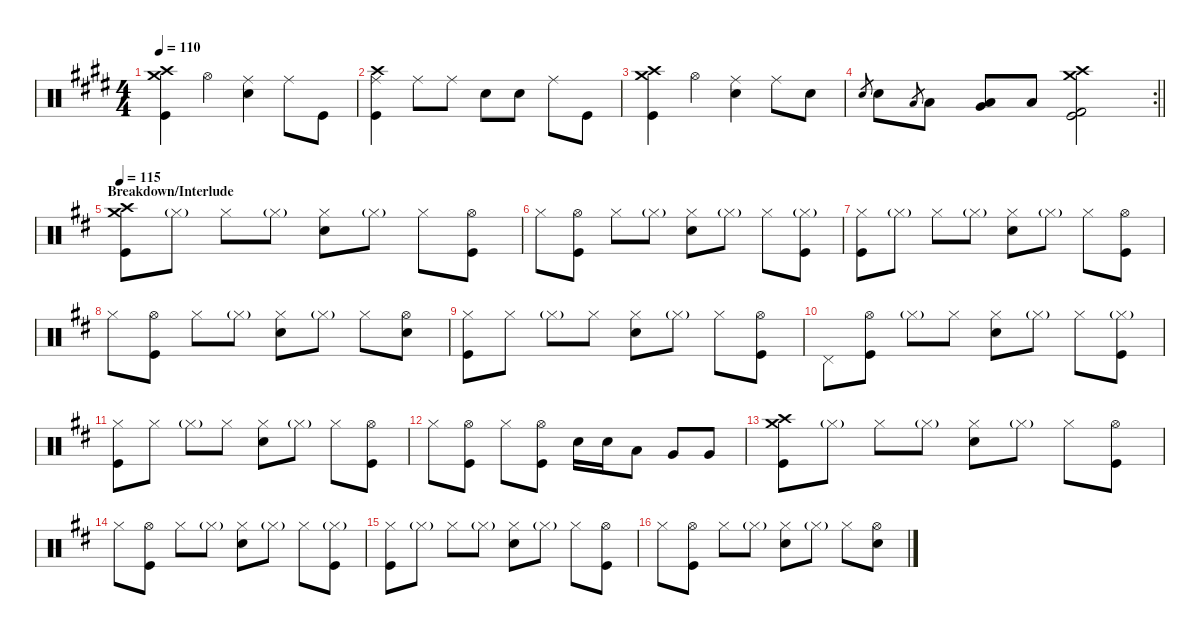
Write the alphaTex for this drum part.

\defaultSystemsLayout 4
\hideDynamics
\bracketExtendMode nobrackets
\singleTrackTrackNamePolicy hidden
\multiTrackTrackNamePolicy hidden
\firstSystemTrackNameMode fullname
\firstSystemTrackNameOrientation horizontal
\otherSystemsTrackNameOrientation horizontal
\track ("Aaron Harris" "drm.") {instrument percussion}
\staff {score}
\articulation defaults
\ts (4 4)
\beaming (8 2 2 2 2)
\tempo 110
\clef neutral
\ks c#minor
("Crash medium (hit)"{acc forcenatural} "Crash high (hit)"{acc forcenatural} "Kick (hit)"{acc forcenatural}).4{dy f beam Down} "Hi-Hat (open)"{acc forcenatural}.4{beam Down} ("Ride (middle)"{acc forcenatural} "Snare (hit) 2"{acc forcenatural}).4{beam Down} "Ride (middle)"{acc forcenatural}.8{beam Down} "Kick (hit)"{acc forcenatural}.8{beam Down} |
("Crash high (hit)"{acc forcenatural} "Ride (middle)"{acc forcenatural} "Kick (hit)"{acc forcenatural}).4{beam Down} "Ride (middle)"{acc forcenatural}.8{dy mf beam Down} "Ride (middle)"{acc forcenatural}.8{dy f beam Down} "Snare (hit) 2"{acc forcenatural}.8{beam Down} "Snare (hit) 2"{acc forcenatural}.8{beam Down} "Ride (middle)"{acc forcenatural}.8{beam Down} "Kick (hit)"{acc forcenatural}.8{beam Down} |
("Crash medium (hit)"{acc forcenatural} "Crash high (hit)"{acc forcenatural} "Kick (hit)"{acc forcenatural}).4{beam Down} "Hi-Hat (open)"{acc forcenatural}.4{beam Down} ("Ride (middle)"{acc forcenatural} "Snare (hit) 2"{acc forcenatural}).4{beam Down} "Ride (middle)"{acc forcenatural}.8{beam Down} "Snare (hit) 2"{acc forcenatural}.8{beam Down} |
\rc 2
\barLineRight lightlight "Electric Snare (hit)"{acc forcenatural}.8{gr dy ff beam Up} "Snare (hit) 2"{acc forcenatural}.8{dy f beam Down} "Low Tom (hit)"{acc forcenatural}.8{gr dy mf beam Up} "Low Tom (hit)"{acc forcenatural}.8{dy f beam Down}
("Very Low Tom (hit)"{acc forcenatural} "Low Floor Tom (hit)"{acc forcenatural}).8{beam Up} "Low Floor Tom (hit)"{acc forcenatural}.8{beam Up} ("Crash medium (hit)"{acc forcenatural} "Crash high (hit)"{acc forcenatural} "Kick (hit) 2"{acc forcenatural} "Kick (hit)"{acc forcenatural}).2{beam Down} |
\section ("" "Breakdown/Interlude")
\tempo 115
\ks bminor
("Crash medium (hit)"{acc forcenatural} "Crash high (hit)"{acc forcenatural} "Kick (hit)"{acc forcenatural}).8{beam Down} "Hi-Hat (closed)"{g acc forcenatural}.8{dy mf beam Down} "Hi-Hat (closed)"{acc forcenatural}.8{dy f beam Down} "Hi-Hat (closed)"{g acc forcenatural}.8{dy mf beam Down} ("Hi-Hat (closed)"{acc forcenatural} "Snare (hit) 2"{acc forcenatural}).8{dy f beam Down} "Hi-Hat (closed)"{g acc forcenatural}.8{dy mf beam Down} "Hi-Hat (closed)"{acc forcenatural}.8{dy f beam Down} ("Hi-Hat (open)"{acc forcenatural} "Kick (hit)"{acc forcenatural}).8{beam Down} |
"Hi-Hat (closed)"{acc forcenatural}.8{beam Down} ("Hi-Hat (open)"{acc forcenatural} "Kick (hit)"{acc forcenatural}).8{beam Down} "Hi-Hat (closed)"{acc forcenatural}.8{beam Down} "Hi-Hat (closed)"{g acc forcenatural}.8{dy mf beam Down} ("Hi-Hat (closed)"{acc forcenatural} "Snare (hit) 2"{acc forcenatural}).8{dy f beam Down} "Hi-Hat (closed)"{g acc forcenatural}.8{dy mf beam Down} "Hi-Hat (closed)"{acc forcenatural}.8{dy f beam Down} ("Hi-Hat (closed)"{g acc forcenatural} "Kick (hit)"{acc forcenatural}).8{beam Down} |
("Hi-Hat (closed)"{acc forcenatural} "Kick (hit)"{acc forcenatural}).8{beam Down} "Hi-Hat (closed)"{g acc forcenatural}.8{dy mf beam Down} "Hi-Hat (closed)"{acc forcenatural}.8{dy f beam Down} "Hi-Hat (closed)"{g acc forcenatural}.8{dy mf beam Down} ("Hi-Hat (closed)"{acc forcenatural} "Snare (hit) 2"{acc forcenatural}).8{dy f beam Down} "Hi-Hat (closed)"{g acc forcenatural}.8{dy mf beam Down} "Hi-Hat (closed)"{acc forcenatural}.8{dy f beam Down} ("Hi-Hat (open)"{acc forcenatural} "Kick (hit)"{acc forcenatural}).8{beam Down} |
"Hi-Hat (closed)"{acc forcenatural}.8{beam Down} ("Hi-Hat (open)"{acc forcenatural} "Kick (hit)"{acc forcenatural}).8{beam Down} "Hi-Hat (closed)"{acc forcenatural}.8{beam Down} "Hi-Hat (closed)"{g acc forcenatural}.8{dy mf beam Down} ("Hi-Hat (closed)"{acc forcenatural} "Snare (hit) 2"{acc forcenatural}).8{dy f beam Down} "Hi-Hat (closed)"{g acc forcenatural}.8{dy mf beam Down} "Hi-Hat (closed)"{acc forcenatural}.8{dy f beam Down} ("Hi-Hat (open)"{acc forcenatural} "Snare (hit) 2"{acc forcenatural}).8{beam Down} |
("Hi-Hat (closed)"{acc forcenatural} "Kick (hit)"{acc forcenatural}).8{beam Down} "Hi-Hat (closed)"{acc forcenatural}.8{beam Down} "Hi-Hat (closed)"{g acc forcenatural}.8{dy mf beam Down} "Hi-Hat (closed)"{acc forcenatural}.8{dy f beam Down} ("Hi-Hat (closed)"{acc forcenatural} "Snare (hit) 2"{acc forcenatural}).8{beam Down} "Hi-Hat (closed)"{g acc forcenatural}.8{dy mf beam Down} "Hi-Hat (closed)"{acc forcenatural}.8{dy f beam Down} ("Hi-Hat (open)"{acc forcenatural} "Kick (hit)"{acc forcenatural}).8{beam Down} |
"Pedal Hi-Hat (hit)"{acc forcenatural}.8{beam Down} ("Hi-Hat (open)"{acc forcenatural} "Kick (hit)"{acc forcenatural}).8{beam Down} "Hi-Hat (closed)"{g acc forcenatural}.8{dy mf beam Down} "Hi-Hat (closed)"{acc forcenatural}.8{dy f beam Down} ("Hi-Hat (closed)"{acc forcenatural} "Snare (hit) 2"{acc forcenatural}).8{beam Down} "Hi-Hat (closed)"{g acc forcenatural}.8{dy mf beam Down} "Hi-Hat (closed)"{acc forcenatural}.8{dy f beam Down} ("Hi-Hat (closed)"{g acc forcenatural} "Kick (hit)"{acc forcenatural}).8{beam Down} |
("Hi-Hat (closed)"{acc forcenatural} "Kick (hit)"{acc forcenatural}).8{beam Down} "Hi-Hat (closed)"{acc forcenatural}.8{beam Down} "Hi-Hat (closed)"{g acc forcenatural}.8{dy mf beam Down} "Hi-Hat (closed)"{acc forcenatural}.8{dy f beam Down} ("Hi-Hat (closed)"{acc forcenatural} "Snare (hit) 2"{acc forcenatural}).8{beam Down} "Hi-Hat (closed)"{g acc forcenatural}.8{dy mf beam Down} "Hi-Hat (closed)"{acc forcenatural}.8{dy f beam Down} ("Hi-Hat (open)"{acc forcenatural} "Kick (hit)"{acc forcenatural}).8{beam Down} |
"Hi-Hat (closed)"{acc forcenatural}.8{beam Down} ("Hi-Hat (open)"{acc forcenatural} "Kick (hit)"{acc forcenatural}).8{beam Down} "Hi-Hat (closed)"{acc forcenatural}.8{beam Down} ("Hi-Hat (open)"{acc forcenatural} "Kick (hit)"{acc forcenatural}).8{beam Down} "Snare (hit) 2"{acc forcenatural}.16{beam Down} "Snare (hit) 2"{acc forcenatural}.16{beam Down} "Low Tom (hit)"{acc forcenatural}.8{beam Down} "Very Low Tom (hit)"{acc forcenatural}.8{beam Up} "Very Low Tom (hit)"{acc forcenatural}.8{beam Up} |
("Crash medium (hit)"{acc forcenatural} "Crash high (hit)"{acc forcenatural} "Kick (hit)"{acc forcenatural}).8{beam Down} "Hi-Hat (closed)"{g acc forcenatural}.8{dy mf beam Down} "Hi-Hat (closed)"{acc forcenatural}.8{dy f beam Down} "Hi-Hat (closed)"{g acc forcenatural}.8{dy mf beam Down} ("Hi-Hat (closed)"{acc forcenatural} "Snare (hit) 2"{acc forcenatural}).8{dy f beam Down} "Hi-Hat (closed)"{g acc forcenatural}.8{dy mf beam Down} "Hi-Hat (closed)"{acc forcenatural}.8{dy f beam Down} ("Hi-Hat (open)"{acc forcenatural} "Kick (hit)"{acc forcenatural}).8{beam Down} |
"Hi-Hat (closed)"{acc forcenatural}.8{beam Down} ("Hi-Hat (open)"{acc forcenatural} "Kick (hit)"{acc forcenatural}).8{beam Down} "Hi-Hat (closed)"{acc forcenatural}.8{beam Down} "Hi-Hat (closed)"{g acc forcenatural}.8{dy mf beam Down} ("Hi-Hat (closed)"{acc forcenatural} "Snare (hit) 2"{acc forcenatural}).8{dy f beam Down} "Hi-Hat (closed)"{g acc forcenatural}.8{dy mf beam Down} "Hi-Hat (closed)"{acc forcenatural}.8{dy f beam Down} ("Hi-Hat (closed)"{g acc forcenatural} "Kick (hit)"{acc forcenatural}).8{beam Down} |
("Hi-Hat (closed)"{acc forcenatural} "Kick (hit)"{acc forcenatural}).8{beam Down} "Hi-Hat (closed)"{g acc forcenatural}.8{dy mf beam Down} "Hi-Hat (closed)"{acc forcenatural}.8{dy f beam Down} "Hi-Hat (closed)"{g acc forcenatural}.8{dy mf beam Down} ("Hi-Hat (closed)"{acc forcenatural} "Snare (hit) 2"{acc forcenatural}).8{dy f beam Down} "Hi-Hat (closed)"{g acc forcenatural}.8{dy mf beam Down} "Hi-Hat (closed)"{acc forcenatural}.8{dy f beam Down} ("Hi-Hat (open)"{acc forcenatural} "Kick (hit)"{acc forcenatural}).8{beam Down} |
"Hi-Hat (closed)"{acc forcenatural}.8{beam Down} ("Hi-Hat (open)"{acc forcenatural} "Kick (hit)"{acc forcenatural}).8{beam Down} "Hi-Hat (closed)"{acc forcenatural}.8{beam Down} "Hi-Hat (closed)"{g acc forcenatural}.8{dy mf beam Down} ("Hi-Hat (closed)"{acc forcenatural} "Snare (hit) 2"{acc forcenatural}).8{dy f beam Down} "Hi-Hat (closed)"{g acc forcenatural}.8{dy mf beam Down} "Hi-Hat (closed)"{acc forcenatural}.8{dy f beam Down} ("Hi-Hat (open)"{acc forcenatural} "Snare (hit) 2"{acc forcenatural}).8{beam Down}
